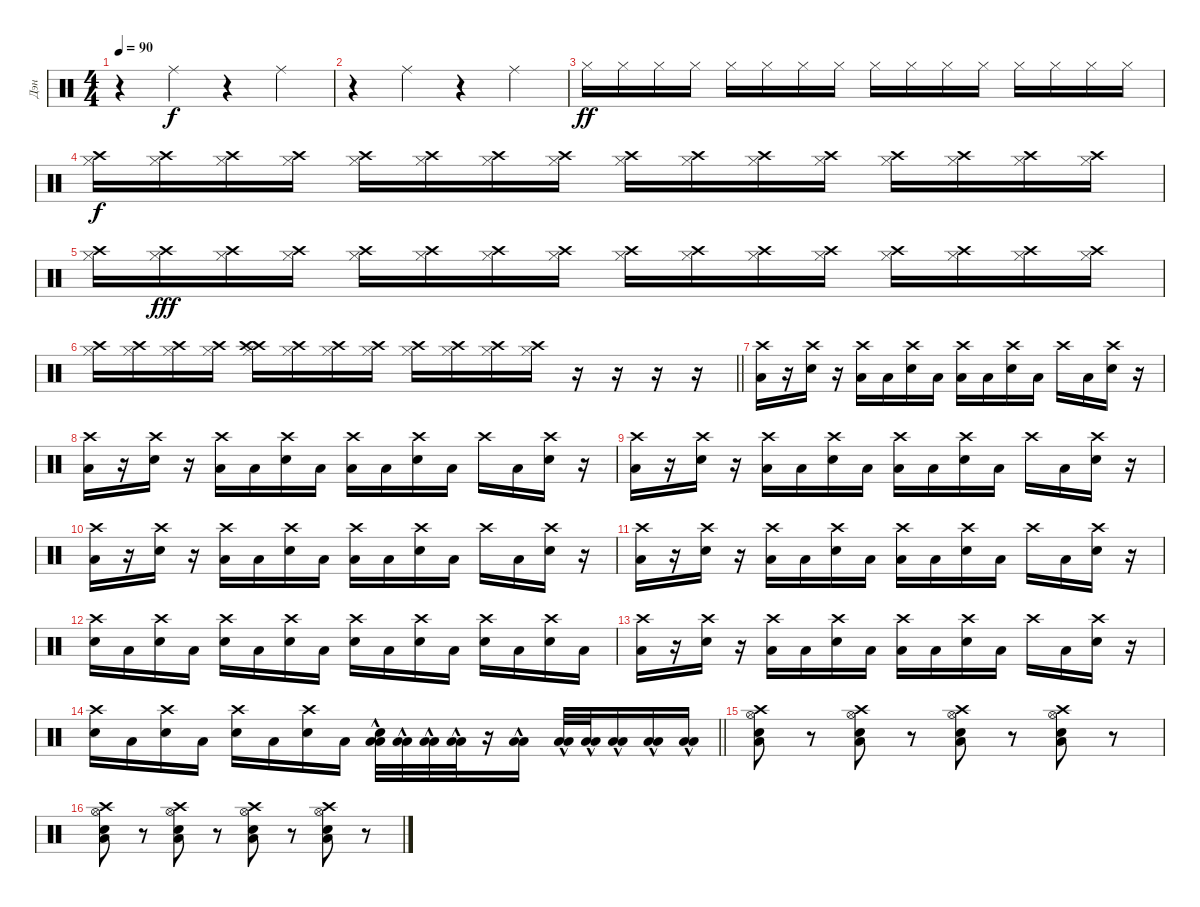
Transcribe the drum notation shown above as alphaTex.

\track ("Дэн" "Дэн") {instrument percussion}
\staff {score}
\articulation defaults
\ts (4 4)
\tempo 90
\clef neutral
\ks c
r.4{dy f} "Ride (middle)".4 r.4 "Ride (middle)".4 |
r.4 "Ride (middle)".4 r.4 "Ride (middle)".4{volume 7} |
"Hi-Hat (closed)".16{dy ff} "Hi-Hat (closed)".16 "Hi-Hat (closed)".16 "Hi-Hat (closed)".16 "Hi-Hat (closed)".16 "Hi-Hat (closed)".16 "Hi-Hat (closed)".16 "Hi-Hat (closed)".16 "Hi-Hat (closed)".16 "Hi-Hat (closed)".16 "Hi-Hat (closed)".16 "Hi-Hat (closed)".16 "Hi-Hat (closed)".16 "Hi-Hat (closed)".16 "Hi-Hat (closed)".16 "Hi-Hat (closed)".16 |
("Crash high (hit)" "Hi-Hat (closed)").16{dy f volume 16} ("Crash high (hit)" "Hi-Hat (closed)").16 ("Crash high (hit)" "Hi-Hat (closed)").16 ("Crash high (hit)" "Hi-Hat (closed)").16 ("Crash high (hit)" "Hi-Hat (closed)").16 ("Crash high (hit)" "Hi-Hat (closed)").16 ("Crash high (hit)" "Hi-Hat (closed)").16 ("Crash high (hit)" "Hi-Hat (closed)").16 ("Crash high (hit)" "Hi-Hat (closed)").16 ("Crash high (hit)" "Hi-Hat (closed)").16 ("Crash high (hit)" "Hi-Hat (closed)").16 ("Crash high (hit)" "Hi-Hat (closed)").16 ("Crash high (hit)" "Hi-Hat (closed)").16 ("Crash high (hit)" "Hi-Hat (closed)").16 ("Crash high (hit)" "Hi-Hat (closed)").16 ("Crash high (hit)" "Hi-Hat (closed)").16 |
("Crash high (hit)" "Hi-Hat (closed)").16 ("Crash high (hit)" "Hi-Hat (closed)").16{dy fff} ("Crash high (hit)" "Hi-Hat (closed)").16 ("Crash high (hit)" "Hi-Hat (closed)").16 ("Crash high (hit)" "Hi-Hat (closed)").16 ("Crash high (hit)" "Hi-Hat (closed)").16 ("Crash high (hit)" "Hi-Hat (closed)").16 ("Crash high (hit)" "Hi-Hat (closed)").16 ("Crash high (hit)" "Hi-Hat (closed)").16 ("Crash high (hit)" "Hi-Hat (closed)").16 ("Crash high (hit)" "Hi-Hat (closed)").16 ("Crash high (hit)" "Hi-Hat (closed)").16 ("Crash high (hit)" "Hi-Hat (closed)").16 ("Crash high (hit)" "Hi-Hat (closed)").16 ("Crash high (hit)" "Hi-Hat (closed)").16 ("Crash high (hit)" "Hi-Hat (closed)").16 |
\barLineRight lightlight
("Crash high (hit)" "Hi-Hat (closed)").16 ("Crash high (hit)" "Hi-Hat (closed)").16 ("Crash high (hit)" "Hi-Hat (closed)").16 ("Crash high (hit)" "Hi-Hat (closed)").16 ("Crash high (hit)" "Hi-Hat (closed)" "Crash high (hit)").16 ("Crash high (hit)" "Hi-Hat (closed)").16 ("Crash high (hit)" "Hi-Hat (closed)").16 ("Crash high (hit)" "Hi-Hat (closed)").16 ("Crash high (hit)" "Hi-Hat (closed)").16 ("Crash high (hit)" "Hi-Hat (closed)").16 ("Crash high (hit)" "Hi-Hat (closed)").16 ("Crash high (hit)" "Hi-Hat (closed)").16 r.16 r.16 r.16 r.16 |
("Low Floor Tom (hit)" "Crash high (hit)").16 r.16 ("Crash high (hit)" "Electric Snare (hit)").16 r.16 ("Low Floor Tom (hit)" "Crash high (hit)").16 "Low Floor Tom (hit)".16 ("Crash high (hit)" "Electric Snare (hit)").16 "Low Floor Tom (hit)".16 ("Crash high (hit)" "Low Floor Tom (hit)").16 "Low Floor Tom (hit)".16 ("Crash high (hit)" "Electric Snare (hit)").16 "Low Floor Tom (hit)".16 "Crash high (hit)".16 "Low Floor Tom (hit)".16 ("Crash high (hit)" "Electric Snare (hit)").16 r.16 |
("Low Floor Tom (hit)" "Crash high (hit)").16 r.16 ("Crash high (hit)" "Electric Snare (hit)").16 r.16 ("Low Floor Tom (hit)" "Crash high (hit)").16 "Low Floor Tom (hit)".16 ("Crash high (hit)" "Electric Snare (hit)").16 "Low Floor Tom (hit)".16 ("Crash high (hit)" "Low Floor Tom (hit)").16 "Low Floor Tom (hit)".16 ("Crash high (hit)" "Electric Snare (hit)").16 "Low Floor Tom (hit)".16 "Crash high (hit)".16 "Low Floor Tom (hit)".16 ("Crash high (hit)" "Electric Snare (hit)").16 r.16 |
("Low Floor Tom (hit)" "Crash high (hit)").16 r.16 ("Crash high (hit)" "Electric Snare (hit)").16 r.16 ("Low Floor Tom (hit)" "Crash high (hit)").16 "Low Floor Tom (hit)".16 ("Crash high (hit)" "Electric Snare (hit)").16 "Low Floor Tom (hit)".16 ("Crash high (hit)" "Low Floor Tom (hit)").16 "Low Floor Tom (hit)".16 ("Crash high (hit)" "Electric Snare (hit)").16 "Low Floor Tom (hit)".16 "Crash high (hit)".16 "Low Floor Tom (hit)".16 ("Crash high (hit)" "Electric Snare (hit)").16 r.16 |
("Low Floor Tom (hit)" "Crash high (hit)").16 r.16 ("Crash high (hit)" "Electric Snare (hit)").16 r.16 ("Low Floor Tom (hit)" "Crash high (hit)").16 "Low Floor Tom (hit)".16 ("Crash high (hit)" "Electric Snare (hit)").16 "Low Floor Tom (hit)".16 ("Crash high (hit)" "Low Floor Tom (hit)").16 "Low Floor Tom (hit)".16 ("Crash high (hit)" "Electric Snare (hit)").16 "Low Floor Tom (hit)".16 "Crash high (hit)".16 "Low Floor Tom (hit)".16 ("Crash high (hit)" "Electric Snare (hit)").16 r.16 |
("Low Floor Tom (hit)" "Crash high (hit)").16 r.16 ("Crash high (hit)" "Electric Snare (hit)").16 r.16 ("Low Floor Tom (hit)" "Crash high (hit)").16 "Low Floor Tom (hit)".16 ("Crash high (hit)" "Electric Snare (hit)").16 "Low Floor Tom (hit)".16 ("Crash high (hit)" "Low Floor Tom (hit)").16 "Low Floor Tom (hit)".16 ("Crash high (hit)" "Electric Snare (hit)").16 "Low Floor Tom (hit)".16 "Crash high (hit)".16 "Low Floor Tom (hit)".16 ("Crash high (hit)" "Electric Snare (hit)").16 r.16 |
("Crash high (hit)" "Electric Snare (hit)").16 "Low Floor Tom (hit)".16 ("Crash high (hit)" "Electric Snare (hit)").16 "Low Floor Tom (hit)".16 ("Crash high (hit)" "Electric Snare (hit)").16 "Low Floor Tom (hit)".16 ("Crash high (hit)" "Electric Snare (hit)").16 "Low Floor Tom (hit)".16 ("Crash high (hit)" "Electric Snare (hit)").16 "Low Floor Tom (hit)".16 ("Crash high (hit)" "Electric Snare (hit)").16 "Low Floor Tom (hit)".16 ("Crash high (hit)" "Electric Snare (hit)").16 "Low Floor Tom (hit)".16 ("Crash high (hit)" "Electric Snare (hit)").16 "Low Floor Tom (hit)".16 |
("Low Floor Tom (hit)" "Crash high (hit)").16 r.16 ("Crash high (hit)" "Electric Snare (hit)").16 r.16 ("Low Floor Tom (hit)" "Crash high (hit)").16 "Low Floor Tom (hit)".16 ("Crash high (hit)" "Electric Snare (hit)").16 "Low Floor Tom (hit)".16 ("Crash high (hit)" "Low Floor Tom (hit)").16 "Low Floor Tom (hit)".16 ("Crash high (hit)" "Electric Snare (hit)").16 "Low Floor Tom (hit)".16 "Crash high (hit)".16 "Low Floor Tom (hit)".16 ("Crash high (hit)" "Electric Snare (hit)").16 r.16 |
\barLineRight lightlight
("Crash high (hit)" "Electric Snare (hit)").16 "Low Floor Tom (hit)".16 ("Crash high (hit)" "Electric Snare (hit)").16 "Low Floor Tom (hit)".16 ("Crash high (hit)" "Electric Snare (hit)").16 "Low Floor Tom (hit)".16 ("Crash high (hit)" "Electric Snare (hit)").16 "Low Floor Tom (hit)".16 ("Low Floor Tom (hit)"{hac} "Electric Snare (hit)"{hac} "Low Floor Tom (hit)"{hac}).32 ("Low Floor Tom (hit)"{hac} "Low Floor Tom (hit)"{hac}).32 ("Low Floor Tom (hit)"{hac} "Low Floor Tom (hit)"{hac}).32 ("Low Floor Tom (hit)"{hac} "Low Floor Tom (hit)"{hac}).32 r.16 ("Low Floor Tom (hit)"{hac} "Low Floor Tom (hit)"{hac}).16 ("Low Floor Tom (hit)"{hac} "Low Floor Tom (hit)"{hac}).32 ("Low Floor Tom (hit)"{hac} "Low Floor Tom (hit)"{hac}).32 ("Low Floor Tom (hit)"{hac} "Low Floor Tom (hit)"{hac}).16 ("Low Floor Tom (hit)"{hac} "Low Floor Tom (hit)"{hac}).16 ("Low Floor Tom (hit)"{hac} "Low Floor Tom (hit)"{hac}).16 |
("Low Floor Tom (hit)" "Electric Snare (hit)" "Hi-Hat (open)" "Crash high (hit)").8 r.8 ("Low Floor Tom (hit)" "Electric Snare (hit)" "Hi-Hat (open)" "Crash high (hit)").8 r.8 ("Low Floor Tom (hit)" "Electric Snare (hit)" "Hi-Hat (open)" "Crash high (hit)").8 r.8 ("Low Floor Tom (hit)" "Electric Snare (hit)" "Hi-Hat (open)" "Crash high (hit)").8 r.8 |
("Low Floor Tom (hit)" "Electric Snare (hit)" "Hi-Hat (open)" "Crash high (hit)").8 r.8 ("Low Floor Tom (hit)" "Electric Snare (hit)" "Hi-Hat (open)" "Crash high (hit)").8 r.8 ("Low Floor Tom (hit)" "Electric Snare (hit)" "Hi-Hat (open)" "Crash high (hit)").8 r.8 ("Low Floor Tom (hit)" "Electric Snare (hit)" "Hi-Hat (open)" "Crash high (hit)").8 r.8
